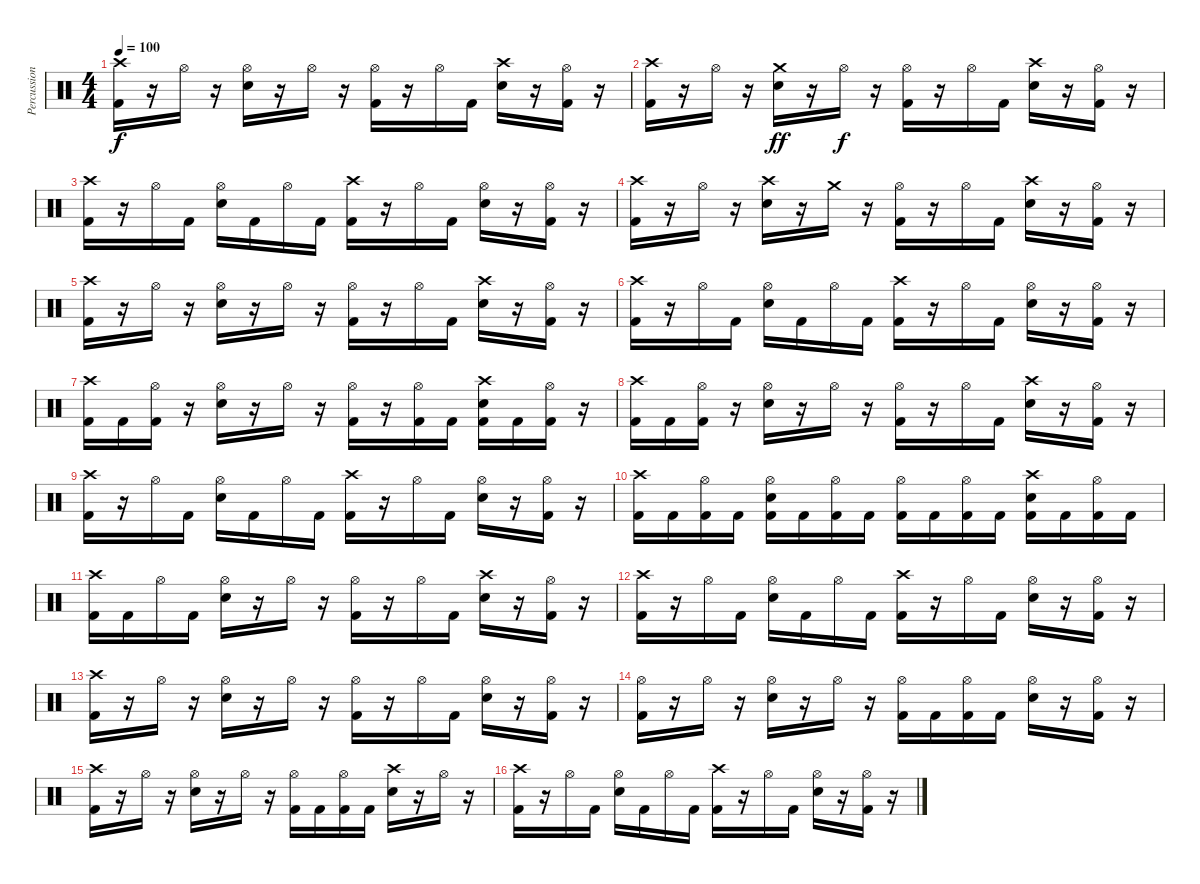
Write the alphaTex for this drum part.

\track ("Percussion" "Percussion") {instrument percussion}
\staff {score}
\articulation defaults
\ts (4 4)
\tempo 100
\clef neutral
\ks c
("Crash high (hit)" "Kick (hit) 2").16{dy f} r.16 "Hi-Hat (open)".16 r.16 ("Hi-Hat (open)" "Snare (hit) 2").16 r.16 "Hi-Hat (open)".16 r.16 ("Hi-Hat (open)" "Kick (hit) 2").16 r.16 "Hi-Hat (open)".16 "Kick (hit) 2".16 ("Crash high (hit)" "Snare (hit) 2").16 r.16 ("Hi-Hat (open)" "Kick (hit) 2").16 r.16 |
("Crash high (hit)" "Kick (hit) 2").16 r.16 "Hi-Hat (open)".16 r.16 ("Crash medium (hit)" "Snare (hit) 2").16{dy ff} r.16 "Hi-Hat (open)".16{dy f} r.16 ("Hi-Hat (open)" "Kick (hit) 2").16 r.16 "Hi-Hat (open)".16 "Kick (hit) 2".16 ("Crash high (hit)" "Snare (hit) 2").16 r.16 ("Hi-Hat (open)" "Kick (hit) 2").16 r.16 |
("Crash high (hit)" "Kick (hit) 2").16 r.16 "Hi-Hat (open)".16 "Kick (hit) 2".16 ("Hi-Hat (open)" "Snare (hit) 2").16 "Kick (hit) 2".16 "Hi-Hat (open)".16 "Kick (hit) 2".16 ("Crash high (hit)" "Kick (hit) 2").16 r.16 "Hi-Hat (open)".16 "Kick (hit) 2".16 ("Hi-Hat (open)" "Snare (hit) 2").16 r.16 ("Hi-Hat (open)" "Kick (hit) 2").16 r.16 |
("Crash high (hit)" "Kick (hit) 2").16 r.16 "Hi-Hat (open)".16 r.16 ("Crash high (hit)" "Snare (hit) 2").16 r.16 "Crash medium (hit)".16 r.16 ("Hi-Hat (open)" "Kick (hit) 2").16 r.16 "Hi-Hat (open)".16 "Kick (hit) 2".16 ("Crash high (hit)" "Snare (hit) 2").16 r.16 ("Hi-Hat (open)" "Kick (hit) 2").16 r.16 |
("Crash high (hit)" "Kick (hit) 2").16 r.16 "Hi-Hat (open)".16 r.16 ("Hi-Hat (open)" "Snare (hit) 2").16 r.16 "Hi-Hat (open)".16 r.16 ("Hi-Hat (open)" "Kick (hit) 2").16 r.16 "Hi-Hat (open)".16 "Kick (hit) 2".16 ("Crash high (hit)" "Snare (hit) 2").16 r.16 ("Hi-Hat (open)" "Kick (hit) 2").16 r.16 |
("Crash high (hit)" "Kick (hit) 2").16 r.16 "Hi-Hat (open)".16 "Kick (hit) 2".16 ("Hi-Hat (open)" "Snare (hit) 2").16 "Kick (hit) 2".16 "Hi-Hat (open)".16 "Kick (hit) 2".16 ("Crash high (hit)" "Kick (hit) 2").16 r.16 "Hi-Hat (open)".16 "Kick (hit) 2".16 ("Hi-Hat (open)" "Snare (hit) 2").16 r.16 ("Hi-Hat (open)" "Kick (hit) 2").16 r.16 |
("Crash high (hit)" "Kick (hit) 2").16 "Kick (hit) 2".16 ("Hi-Hat (open)" "Kick (hit) 2").16 r.16 ("Hi-Hat (open)" "Snare (hit) 2").16 r.16 "Hi-Hat (open)".16 r.16 ("Hi-Hat (open)" "Kick (hit) 2").16 r.16 ("Hi-Hat (open)" "Kick (hit) 2").16 "Kick (hit) 2".16 ("Crash high (hit)" "Snare (hit) 2" "Kick (hit) 2").16 "Kick (hit) 2".16 ("Hi-Hat (open)" "Kick (hit) 2").16 r.16 |
("Crash high (hit)" "Kick (hit) 2").16 "Kick (hit) 2".16 ("Hi-Hat (open)" "Kick (hit) 2").16 r.16 ("Hi-Hat (open)" "Snare (hit) 2").16 r.16 "Hi-Hat (open)".16 r.16 ("Hi-Hat (open)" "Kick (hit) 2").16 r.16 "Hi-Hat (open)".16 "Kick (hit) 2".16 ("Crash high (hit)" "Snare (hit) 2").16 r.16 ("Hi-Hat (open)" "Kick (hit) 2").16 r.16 |
("Crash high (hit)" "Kick (hit) 2").16 r.16 "Hi-Hat (open)".16 "Kick (hit) 2".16 ("Hi-Hat (open)" "Snare (hit) 2").16 "Kick (hit) 2".16 "Hi-Hat (open)".16 "Kick (hit) 2".16 ("Crash high (hit)" "Kick (hit) 2").16 r.16 "Hi-Hat (open)".16 "Kick (hit) 2".16 ("Hi-Hat (open)" "Snare (hit) 2").16 r.16 ("Hi-Hat (open)" "Kick (hit) 2").16 r.16 |
("Crash high (hit)" "Kick (hit) 2").16 "Kick (hit) 2".16 ("Hi-Hat (open)" "Kick (hit) 2").16 "Kick (hit) 2".16 ("Hi-Hat (open)" "Snare (hit) 2" "Kick (hit) 2").16 "Kick (hit) 2".16 ("Hi-Hat (open)" "Kick (hit) 2").16 "Kick (hit) 2".16 ("Hi-Hat (open)" "Kick (hit) 2").16 "Kick (hit) 2".16 ("Hi-Hat (open)" "Kick (hit) 2").16 "Kick (hit) 2".16 ("Crash high (hit)" "Snare (hit) 2" "Kick (hit) 2").16 "Kick (hit) 2".16 ("Hi-Hat (open)" "Kick (hit) 2").16 "Kick (hit) 2".16 |
("Crash high (hit)" "Kick (hit) 2").16 "Kick (hit) 2".16 "Hi-Hat (open)".16 "Kick (hit) 2".16 ("Hi-Hat (open)" "Snare (hit) 2").16 r.16 "Hi-Hat (open)".16 r.16 ("Hi-Hat (open)" "Kick (hit) 2").16 r.16 "Hi-Hat (open)".16 "Kick (hit) 2".16 ("Crash high (hit)" "Snare (hit) 2").16 r.16 ("Hi-Hat (open)" "Kick (hit) 2").16 r.16 |
("Crash high (hit)" "Kick (hit) 2").16 r.16 "Hi-Hat (open)".16 "Kick (hit) 2".16 ("Hi-Hat (open)" "Snare (hit) 2").16 "Kick (hit) 2".16 "Hi-Hat (open)".16 "Kick (hit) 2".16 ("Crash high (hit)" "Kick (hit) 2").16 r.16 "Hi-Hat (open)".16 "Kick (hit) 2".16 ("Hi-Hat (open)" "Snare (hit) 2").16 r.16 ("Hi-Hat (open)" "Kick (hit) 2").16 r.16 |
("Crash high (hit)" "Kick (hit) 2").16 r.16 "Hi-Hat (open)".16 r.16 ("Hi-Hat (open)" "Snare (hit) 2").16 r.16 "Hi-Hat (open)".16 r.16 ("Hi-Hat (open)" "Kick (hit) 2").16 r.16 "Hi-Hat (open)".16 "Kick (hit) 2".16 ("Hi-Hat (open)" "Snare (hit) 2").16 r.16 ("Hi-Hat (open)" "Kick (hit) 2").16 r.16 |
("Hi-Hat (open)" "Kick (hit) 2").16 r.16 "Hi-Hat (open)".16 r.16 ("Hi-Hat (open)" "Snare (hit) 2").16 r.16 "Hi-Hat (open)".16 r.16 ("Hi-Hat (open)" "Kick (hit) 2").16 "Kick (hit) 2".16 ("Hi-Hat (open)" "Kick (hit) 2").16 "Kick (hit) 2".16 ("Hi-Hat (open)" "Snare (hit) 2").16 r.16 ("Hi-Hat (open)" "Kick (hit) 2").16 r.16 |
("Crash high (hit)" "Kick (hit) 2").16 r.16 "Hi-Hat (open)".16 r.16 ("Hi-Hat (open)" "Snare (hit) 2").16 r.16 "Hi-Hat (open)".16 r.16 ("Hi-Hat (open)" "Kick (hit) 2").16 "Kick (hit) 2".16 ("Hi-Hat (open)" "Kick (hit) 2").16 "Kick (hit) 2".16 ("Crash high (hit)" "Snare (hit) 2").16 r.16 "Hi-Hat (open)".16 r.16 |
("Crash high (hit)" "Kick (hit) 2").16 r.16 "Hi-Hat (open)".16 "Kick (hit) 2".16 ("Hi-Hat (open)" "Snare (hit) 2").16 "Kick (hit) 2".16 "Hi-Hat (open)".16 "Kick (hit) 2".16 ("Crash high (hit)" "Kick (hit) 2").16 r.16 "Hi-Hat (open)".16 "Kick (hit) 2".16 ("Hi-Hat (open)" "Snare (hit) 2").16 r.16 ("Hi-Hat (open)" "Kick (hit) 2").16 r.16
